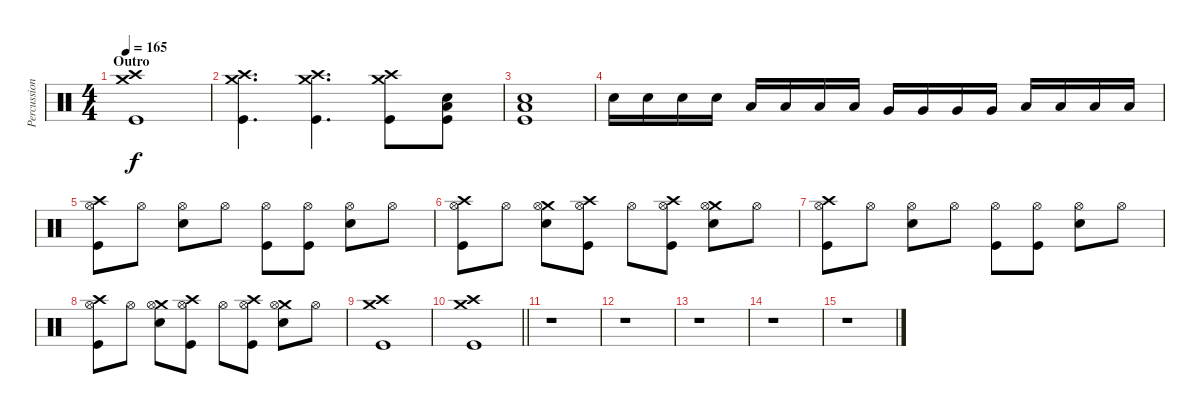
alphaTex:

\track ("Percussion" "Percussion") {instrument percussion}
\staff {score}
\articulation defaults
\ts (4 4)
\section ("" "Outro")
\tempo 165
\clef neutral
\ks c
("Crash medium (hit)" "Crash high (hit)" "Kick (hit)").1{dy f} |
("Crash medium (hit)" "Crash high (hit)" "Kick (hit)").4{d} ("Crash medium (hit)" "Crash high (hit)" "Kick (hit)").4{d} ("Crash medium (hit)" "Crash high (hit)" "Kick (hit)").8 ("Snare (hit) 2" "Low Tom (hit)" "Kick (hit)").8 |
("Snare (hit) 2" "Low Tom (hit)" "Kick (hit)").1 |
"Snare (hit) 2".16 "Snare (hit) 2".16 "Snare (hit) 2".16 "Snare (hit) 2".16 "Low Tom (hit)".16 "Low Tom (hit)".16 "Low Tom (hit)".16 "Low Tom (hit)".16 "Very Low Tom (hit)".16 "Very Low Tom (hit)".16 "Very Low Tom (hit)".16 "Very Low Tom (hit)".16 "Low Floor Tom (hit)".16 "Low Floor Tom (hit)".16 "Low Floor Tom (hit)".16 "Low Floor Tom (hit)".16 |
("Crash high (hit)" "Hi-Hat (open)" "Kick (hit)").8 "Hi-Hat (open)".8 ("Hi-Hat (open)" "Snare (hit) 2").8 "Hi-Hat (open)".8 ("Hi-Hat (open)" "Kick (hit)").8 ("Hi-Hat (open)" "Kick (hit)").8 ("Hi-Hat (open)" "Snare (hit) 2").8 "Hi-Hat (open)".8 |
("Crash high (hit)" "Hi-Hat (open)" "Kick (hit)").8 "Hi-Hat (open)".8 ("Crash medium (hit)" "Hi-Hat (open)" "Snare (hit) 2").8 ("Crash high (hit)" "Hi-Hat (open)" "Kick (hit)").8 "Hi-Hat (open)".8 ("Crash high (hit)" "Hi-Hat (open)" "Kick (hit)").8 ("Crash medium (hit)" "Hi-Hat (open)" "Snare (hit) 2").8 "Hi-Hat (open)".8 |
("Crash high (hit)" "Hi-Hat (open)" "Kick (hit)").8 "Hi-Hat (open)".8 ("Hi-Hat (open)" "Snare (hit) 2").8 "Hi-Hat (open)".8 ("Hi-Hat (open)" "Kick (hit)").8 ("Hi-Hat (open)" "Kick (hit)").8 ("Hi-Hat (open)" "Snare (hit) 2").8 "Hi-Hat (open)".8 |
("Crash high (hit)" "Hi-Hat (open)" "Kick (hit)").8 "Hi-Hat (open)".8 ("Crash medium (hit)" "Hi-Hat (open)" "Snare (hit) 2").8 ("Crash high (hit)" "Hi-Hat (open)" "Kick (hit)").8 "Hi-Hat (open)".8 ("Crash high (hit)" "Hi-Hat (open)" "Kick (hit)").8 ("Crash medium (hit)" "Hi-Hat (open)" "Snare (hit) 2").8 "Hi-Hat (open)".8 |
("Crash medium (hit)" "Crash high (hit)" "Kick (hit)").1 |
\barLineRight lightlight
("Crash medium (hit)" "Crash high (hit)" "Kick (hit)").1 |
r.1 |
r.1 |
r.1 |
r.1 |
r.1
